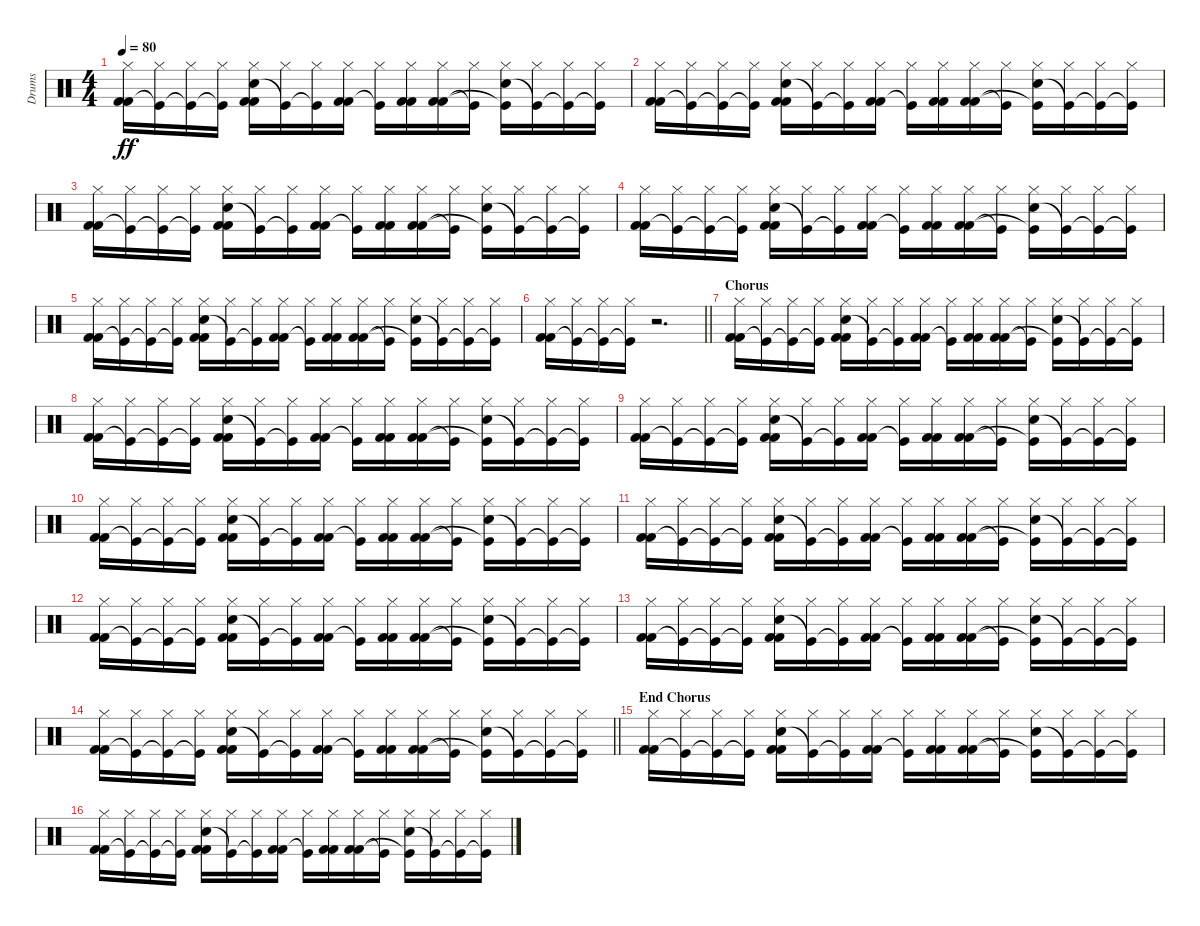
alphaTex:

\track ("Drums" "Drums") {instrument percussion}
\staff {score}
\articulation defaults
\ts (4 4)
\tempo 80
\clef neutral
\ks c
("Hi-Hat (closed)" "Kick (hit) 2" "Kick (hit) 2").16{dy ff} ("Hi-Hat (closed)" "Kick (hit)"{t}).16 ("Hi-Hat (closed)" "Kick (hit)"{t}).16 ("Hi-Hat (closed)" "Kick (hit)"{t}).16 ("Hi-Hat (closed)" "Electric Snare (hit)" "Kick (hit) 2" "Kick (hit) 2").16 ("Hi-Hat (closed)" "Kick (hit)"{t}).16 ("Hi-Hat (closed)" "Kick (hit)"{t}).16 ("Hi-Hat (closed)" "Kick (hit) 2" "Kick (hit) 2").16 ("Hi-Hat (closed)" "Kick (hit)"{t}).16 ("Hi-Hat (closed)" "Kick (hit) 2" "Kick (hit) 2").16 ("Hi-Hat (closed)" "Kick (hit) 2" "Kick (hit) 2").16 ("Hi-Hat (closed)" "Kick (hit)"{t}).16 ("Hi-Hat (closed)" "Electric Snare (hit)" "Kick (hit)"{t}).16 ("Hi-Hat (closed)" "Kick (hit)"{t}).16 ("Hi-Hat (closed)" "Kick (hit)"{t}).16 ("Hi-Hat (closed)" "Kick (hit)"{t}).16 |
("Hi-Hat (closed)" "Kick (hit) 2" "Kick (hit) 2").16 ("Hi-Hat (closed)" "Kick (hit)"{t}).16 ("Hi-Hat (closed)" "Kick (hit)"{t}).16 ("Hi-Hat (closed)" "Kick (hit)"{t}).16 ("Hi-Hat (closed)" "Electric Snare (hit)" "Kick (hit) 2" "Kick (hit) 2").16 ("Hi-Hat (closed)" "Kick (hit)"{t}).16 ("Hi-Hat (closed)" "Kick (hit)"{t}).16 ("Hi-Hat (closed)" "Kick (hit) 2" "Kick (hit) 2").16 ("Hi-Hat (closed)" "Kick (hit)"{t}).16 ("Hi-Hat (closed)" "Kick (hit) 2" "Kick (hit) 2").16 ("Hi-Hat (closed)" "Kick (hit) 2" "Kick (hit) 2").16 ("Hi-Hat (closed)" "Kick (hit)"{t}).16 ("Hi-Hat (closed)" "Electric Snare (hit)" "Kick (hit)"{t}).16 ("Hi-Hat (closed)" "Kick (hit)"{t}).16 ("Hi-Hat (closed)" "Kick (hit)"{t}).16 ("Hi-Hat (closed)" "Kick (hit)"{t}).16 |
("Hi-Hat (closed)" "Kick (hit) 2" "Kick (hit) 2").16 ("Hi-Hat (closed)" "Kick (hit)"{t}).16 ("Hi-Hat (closed)" "Kick (hit)"{t}).16 ("Hi-Hat (closed)" "Kick (hit)"{t}).16 ("Hi-Hat (closed)" "Electric Snare (hit)" "Kick (hit) 2" "Kick (hit) 2").16 ("Hi-Hat (closed)" "Kick (hit)"{t}).16 ("Hi-Hat (closed)" "Kick (hit)"{t}).16 ("Hi-Hat (closed)" "Kick (hit) 2" "Kick (hit) 2").16 ("Hi-Hat (closed)" "Kick (hit)"{t}).16 ("Hi-Hat (closed)" "Kick (hit) 2" "Kick (hit) 2").16 ("Hi-Hat (closed)" "Kick (hit) 2" "Kick (hit) 2").16 ("Hi-Hat (closed)" "Kick (hit)"{t}).16 ("Hi-Hat (closed)" "Electric Snare (hit)" "Kick (hit)"{t}).16 ("Hi-Hat (closed)" "Kick (hit)"{t}).16 ("Hi-Hat (closed)" "Kick (hit)"{t}).16 ("Hi-Hat (closed)" "Kick (hit)"{t}).16 |
("Hi-Hat (closed)" "Kick (hit) 2" "Kick (hit) 2").16 ("Hi-Hat (closed)" "Kick (hit)"{t}).16 ("Hi-Hat (closed)" "Kick (hit)"{t}).16 ("Hi-Hat (closed)" "Kick (hit)"{t}).16 ("Hi-Hat (closed)" "Electric Snare (hit)" "Kick (hit) 2" "Kick (hit) 2").16 ("Hi-Hat (closed)" "Kick (hit)"{t}).16 ("Hi-Hat (closed)" "Kick (hit)"{t}).16 ("Hi-Hat (closed)" "Kick (hit) 2" "Kick (hit) 2").16 ("Hi-Hat (closed)" "Kick (hit)"{t}).16 ("Hi-Hat (closed)" "Kick (hit) 2" "Kick (hit) 2").16 ("Hi-Hat (closed)" "Kick (hit) 2" "Kick (hit) 2").16 ("Hi-Hat (closed)" "Kick (hit)"{t}).16 ("Hi-Hat (closed)" "Electric Snare (hit)" "Kick (hit)"{t}).16 ("Hi-Hat (closed)" "Kick (hit)"{t}).16 ("Hi-Hat (closed)" "Kick (hit)"{t}).16 ("Hi-Hat (closed)" "Kick (hit)"{t}).16 |
("Hi-Hat (closed)" "Kick (hit) 2" "Kick (hit) 2").16 ("Hi-Hat (closed)" "Kick (hit)"{t}).16 ("Hi-Hat (closed)" "Kick (hit)"{t}).16 ("Hi-Hat (closed)" "Kick (hit)"{t}).16 ("Hi-Hat (closed)" "Electric Snare (hit)" "Kick (hit) 2" "Kick (hit) 2").16 ("Hi-Hat (closed)" "Kick (hit)"{t}).16 ("Hi-Hat (closed)" "Kick (hit)"{t}).16 ("Hi-Hat (closed)" "Kick (hit) 2" "Kick (hit) 2").16 ("Hi-Hat (closed)" "Kick (hit)"{t}).16 ("Hi-Hat (closed)" "Kick (hit) 2" "Kick (hit) 2").16 ("Hi-Hat (closed)" "Kick (hit) 2" "Kick (hit) 2").16 ("Hi-Hat (closed)" "Kick (hit)"{t}).16 ("Hi-Hat (closed)" "Electric Snare (hit)" "Kick (hit)"{t}).16 ("Hi-Hat (closed)" "Kick (hit)"{t}).16 ("Hi-Hat (closed)" "Kick (hit)"{t}).16 ("Hi-Hat (closed)" "Kick (hit)"{t}).16 |
\barLineRight lightlight
("Hi-Hat (closed)" "Kick (hit) 2" "Kick (hit) 2").16 ("Hi-Hat (closed)" "Kick (hit)"{t}).16 ("Hi-Hat (closed)" "Kick (hit)"{t}).16 ("Hi-Hat (closed)" "Kick (hit)"{t}).16 r.2{d} |
\section ("" "Chorus")
("Hi-Hat (closed)" "Kick (hit) 2" "Kick (hit) 2").16 ("Hi-Hat (closed)" "Kick (hit)"{t}).16 ("Hi-Hat (closed)" "Kick (hit)"{t}).16 ("Hi-Hat (closed)" "Kick (hit)"{t}).16 ("Hi-Hat (closed)" "Electric Snare (hit)" "Kick (hit) 2" "Kick (hit) 2").16 ("Hi-Hat (closed)" "Kick (hit)"{t}).16 ("Hi-Hat (closed)" "Kick (hit)"{t}).16 ("Hi-Hat (closed)" "Kick (hit) 2" "Kick (hit) 2").16 ("Hi-Hat (closed)" "Kick (hit)"{t}).16 ("Hi-Hat (closed)" "Kick (hit) 2" "Kick (hit) 2").16 ("Hi-Hat (closed)" "Kick (hit) 2" "Kick (hit) 2").16 ("Hi-Hat (closed)" "Kick (hit)"{t}).16 ("Hi-Hat (closed)" "Electric Snare (hit)" "Kick (hit)"{t}).16 ("Hi-Hat (closed)" "Kick (hit)"{t}).16 ("Hi-Hat (closed)" "Kick (hit)"{t}).16 ("Hi-Hat (closed)" "Kick (hit)"{t}).16 |
("Hi-Hat (closed)" "Kick (hit) 2" "Kick (hit) 2").16 ("Hi-Hat (closed)" "Kick (hit)"{t}).16 ("Hi-Hat (closed)" "Kick (hit)"{t}).16 ("Hi-Hat (closed)" "Kick (hit)"{t}).16 ("Hi-Hat (closed)" "Electric Snare (hit)" "Kick (hit) 2" "Kick (hit) 2").16 ("Hi-Hat (closed)" "Kick (hit)"{t}).16 ("Hi-Hat (closed)" "Kick (hit)"{t}).16 ("Hi-Hat (closed)" "Kick (hit) 2" "Kick (hit) 2").16 ("Hi-Hat (closed)" "Kick (hit)"{t}).16 ("Hi-Hat (closed)" "Kick (hit) 2" "Kick (hit) 2").16 ("Hi-Hat (closed)" "Kick (hit) 2" "Kick (hit) 2").16 ("Hi-Hat (closed)" "Kick (hit)"{t}).16 ("Hi-Hat (closed)" "Electric Snare (hit)" "Kick (hit)"{t}).16 ("Hi-Hat (closed)" "Kick (hit)"{t}).16 ("Hi-Hat (closed)" "Kick (hit)"{t}).16 ("Hi-Hat (closed)" "Kick (hit)"{t}).16 |
("Hi-Hat (closed)" "Kick (hit) 2" "Kick (hit) 2").16 ("Hi-Hat (closed)" "Kick (hit)"{t}).16 ("Hi-Hat (closed)" "Kick (hit)"{t}).16 ("Hi-Hat (closed)" "Kick (hit)"{t}).16 ("Hi-Hat (closed)" "Electric Snare (hit)" "Kick (hit) 2" "Kick (hit) 2").16 ("Hi-Hat (closed)" "Kick (hit)"{t}).16 ("Hi-Hat (closed)" "Kick (hit)"{t}).16 ("Hi-Hat (closed)" "Kick (hit) 2" "Kick (hit) 2").16 ("Hi-Hat (closed)" "Kick (hit)"{t}).16 ("Hi-Hat (closed)" "Kick (hit) 2" "Kick (hit) 2").16 ("Hi-Hat (closed)" "Kick (hit) 2" "Kick (hit) 2").16 ("Hi-Hat (closed)" "Kick (hit)"{t}).16 ("Hi-Hat (closed)" "Electric Snare (hit)" "Kick (hit)"{t}).16 ("Hi-Hat (closed)" "Kick (hit)"{t}).16 ("Hi-Hat (closed)" "Kick (hit)"{t}).16 ("Hi-Hat (closed)" "Kick (hit)"{t}).16 |
("Hi-Hat (closed)" "Kick (hit) 2" "Kick (hit) 2").16 ("Hi-Hat (closed)" "Kick (hit)"{t}).16 ("Hi-Hat (closed)" "Kick (hit)"{t}).16 ("Hi-Hat (closed)" "Kick (hit)"{t}).16 ("Hi-Hat (closed)" "Electric Snare (hit)" "Kick (hit) 2" "Kick (hit) 2").16 ("Hi-Hat (closed)" "Kick (hit)"{t}).16 ("Hi-Hat (closed)" "Kick (hit)"{t}).16 ("Hi-Hat (closed)" "Kick (hit) 2" "Kick (hit) 2").16 ("Hi-Hat (closed)" "Kick (hit)"{t}).16 ("Hi-Hat (closed)" "Kick (hit) 2" "Kick (hit) 2").16 ("Hi-Hat (closed)" "Kick (hit) 2" "Kick (hit) 2").16 ("Hi-Hat (closed)" "Kick (hit)"{t}).16 ("Hi-Hat (closed)" "Electric Snare (hit)" "Kick (hit)"{t}).16 ("Hi-Hat (closed)" "Kick (hit)"{t}).16 ("Hi-Hat (closed)" "Kick (hit)"{t}).16 ("Hi-Hat (closed)" "Kick (hit)"{t}).16 |
("Hi-Hat (closed)" "Kick (hit) 2" "Kick (hit) 2").16 ("Hi-Hat (closed)" "Kick (hit)"{t}).16 ("Hi-Hat (closed)" "Kick (hit)"{t}).16 ("Hi-Hat (closed)" "Kick (hit)"{t}).16 ("Hi-Hat (closed)" "Electric Snare (hit)" "Kick (hit) 2" "Kick (hit) 2").16 ("Hi-Hat (closed)" "Kick (hit)"{t}).16 ("Hi-Hat (closed)" "Kick (hit)"{t}).16 ("Hi-Hat (closed)" "Kick (hit) 2" "Kick (hit) 2").16 ("Hi-Hat (closed)" "Kick (hit)"{t}).16 ("Hi-Hat (closed)" "Kick (hit) 2" "Kick (hit) 2").16 ("Hi-Hat (closed)" "Kick (hit) 2" "Kick (hit) 2").16 ("Hi-Hat (closed)" "Kick (hit)"{t}).16 ("Hi-Hat (closed)" "Electric Snare (hit)" "Kick (hit)"{t}).16 ("Hi-Hat (closed)" "Kick (hit)"{t}).16 ("Hi-Hat (closed)" "Kick (hit)"{t}).16 ("Hi-Hat (closed)" "Kick (hit)"{t}).16 |
("Hi-Hat (closed)" "Kick (hit) 2" "Kick (hit) 2").16 ("Hi-Hat (closed)" "Kick (hit)"{t}).16 ("Hi-Hat (closed)" "Kick (hit)"{t}).16 ("Hi-Hat (closed)" "Kick (hit)"{t}).16 ("Hi-Hat (closed)" "Electric Snare (hit)" "Kick (hit) 2" "Kick (hit) 2").16 ("Hi-Hat (closed)" "Kick (hit)"{t}).16 ("Hi-Hat (closed)" "Kick (hit)"{t}).16 ("Hi-Hat (closed)" "Kick (hit) 2" "Kick (hit) 2").16 ("Hi-Hat (closed)" "Kick (hit)"{t}).16 ("Hi-Hat (closed)" "Kick (hit) 2" "Kick (hit) 2").16 ("Hi-Hat (closed)" "Kick (hit) 2" "Kick (hit) 2").16 ("Hi-Hat (closed)" "Kick (hit)"{t}).16 ("Hi-Hat (closed)" "Electric Snare (hit)" "Kick (hit)"{t}).16 ("Hi-Hat (closed)" "Kick (hit)"{t}).16 ("Hi-Hat (closed)" "Kick (hit)"{t}).16 ("Hi-Hat (closed)" "Kick (hit)"{t}).16 |
("Hi-Hat (closed)" "Kick (hit) 2" "Kick (hit) 2").16 ("Hi-Hat (closed)" "Kick (hit)"{t}).16 ("Hi-Hat (closed)" "Kick (hit)"{t}).16 ("Hi-Hat (closed)" "Kick (hit)"{t}).16 ("Hi-Hat (closed)" "Electric Snare (hit)" "Kick (hit) 2" "Kick (hit) 2").16 ("Hi-Hat (closed)" "Kick (hit)"{t}).16 ("Hi-Hat (closed)" "Kick (hit)"{t}).16 ("Hi-Hat (closed)" "Kick (hit) 2" "Kick (hit) 2").16 ("Hi-Hat (closed)" "Kick (hit)"{t}).16 ("Hi-Hat (closed)" "Kick (hit) 2" "Kick (hit) 2").16 ("Hi-Hat (closed)" "Kick (hit) 2" "Kick (hit) 2").16 ("Hi-Hat (closed)" "Kick (hit)"{t}).16 ("Hi-Hat (closed)" "Electric Snare (hit)" "Kick (hit)"{t}).16 ("Hi-Hat (closed)" "Kick (hit)"{t}).16 ("Hi-Hat (closed)" "Kick (hit)"{t}).16 ("Hi-Hat (closed)" "Kick (hit)"{t}).16 |
\barLineRight lightlight
("Hi-Hat (closed)" "Kick (hit) 2" "Kick (hit) 2").16 ("Hi-Hat (closed)" "Kick (hit)"{t}).16 ("Hi-Hat (closed)" "Kick (hit)"{t}).16 ("Hi-Hat (closed)" "Kick (hit)"{t}).16 ("Hi-Hat (closed)" "Electric Snare (hit)" "Kick (hit) 2" "Kick (hit) 2").16 ("Hi-Hat (closed)" "Kick (hit)"{t}).16 ("Hi-Hat (closed)" "Kick (hit)"{t}).16 ("Hi-Hat (closed)" "Kick (hit) 2" "Kick (hit) 2").16 ("Hi-Hat (closed)" "Kick (hit)"{t}).16 ("Hi-Hat (closed)" "Kick (hit) 2" "Kick (hit) 2").16 ("Hi-Hat (closed)" "Kick (hit) 2" "Kick (hit) 2").16 ("Hi-Hat (closed)" "Kick (hit)"{t}).16 ("Hi-Hat (closed)" "Electric Snare (hit)" "Kick (hit)"{t}).16 ("Hi-Hat (closed)" "Kick (hit)"{t}).16 ("Hi-Hat (closed)" "Kick (hit)"{t}).16 ("Hi-Hat (closed)" "Kick (hit)"{t}).16 |
\section ("" "End Chorus")
("Hi-Hat (closed)" "Kick (hit) 2" "Kick (hit) 2").16 ("Hi-Hat (closed)" "Kick (hit)"{t}).16 ("Hi-Hat (closed)" "Kick (hit)"{t}).16 ("Hi-Hat (closed)" "Kick (hit)"{t}).16 ("Hi-Hat (closed)" "Electric Snare (hit)" "Kick (hit) 2" "Kick (hit) 2").16 ("Hi-Hat (closed)" "Kick (hit)"{t}).16 ("Hi-Hat (closed)" "Kick (hit)"{t}).16 ("Hi-Hat (closed)" "Kick (hit) 2" "Kick (hit) 2").16 ("Hi-Hat (closed)" "Kick (hit)"{t}).16 ("Hi-Hat (closed)" "Kick (hit) 2" "Kick (hit) 2").16 ("Hi-Hat (closed)" "Kick (hit) 2" "Kick (hit) 2").16 ("Hi-Hat (closed)" "Kick (hit)"{t}).16 ("Hi-Hat (closed)" "Electric Snare (hit)" "Kick (hit)"{t}).16 ("Hi-Hat (closed)" "Kick (hit)"{t}).16 ("Hi-Hat (closed)" "Kick (hit)"{t}).16 ("Hi-Hat (closed)" "Kick (hit)"{t}).16 |
("Hi-Hat (closed)" "Kick (hit) 2" "Kick (hit) 2").16 ("Hi-Hat (closed)" "Kick (hit)"{t}).16 ("Hi-Hat (closed)" "Kick (hit)"{t}).16 ("Hi-Hat (closed)" "Kick (hit)"{t}).16 ("Hi-Hat (closed)" "Electric Snare (hit)" "Kick (hit) 2" "Kick (hit) 2").16 ("Hi-Hat (closed)" "Kick (hit)"{t}).16 ("Hi-Hat (closed)" "Kick (hit)"{t}).16 ("Hi-Hat (closed)" "Kick (hit) 2" "Kick (hit) 2").16 ("Hi-Hat (closed)" "Kick (hit)"{t}).16 ("Hi-Hat (closed)" "Kick (hit) 2" "Kick (hit) 2").16 ("Hi-Hat (closed)" "Kick (hit) 2" "Kick (hit) 2").16 ("Hi-Hat (closed)" "Kick (hit)"{t}).16 ("Hi-Hat (closed)" "Electric Snare (hit)" "Kick (hit)"{t}).16 ("Hi-Hat (closed)" "Kick (hit)"{t}).16 ("Hi-Hat (closed)" "Kick (hit)"{t}).16 ("Hi-Hat (closed)" "Kick (hit)"{t}).16
